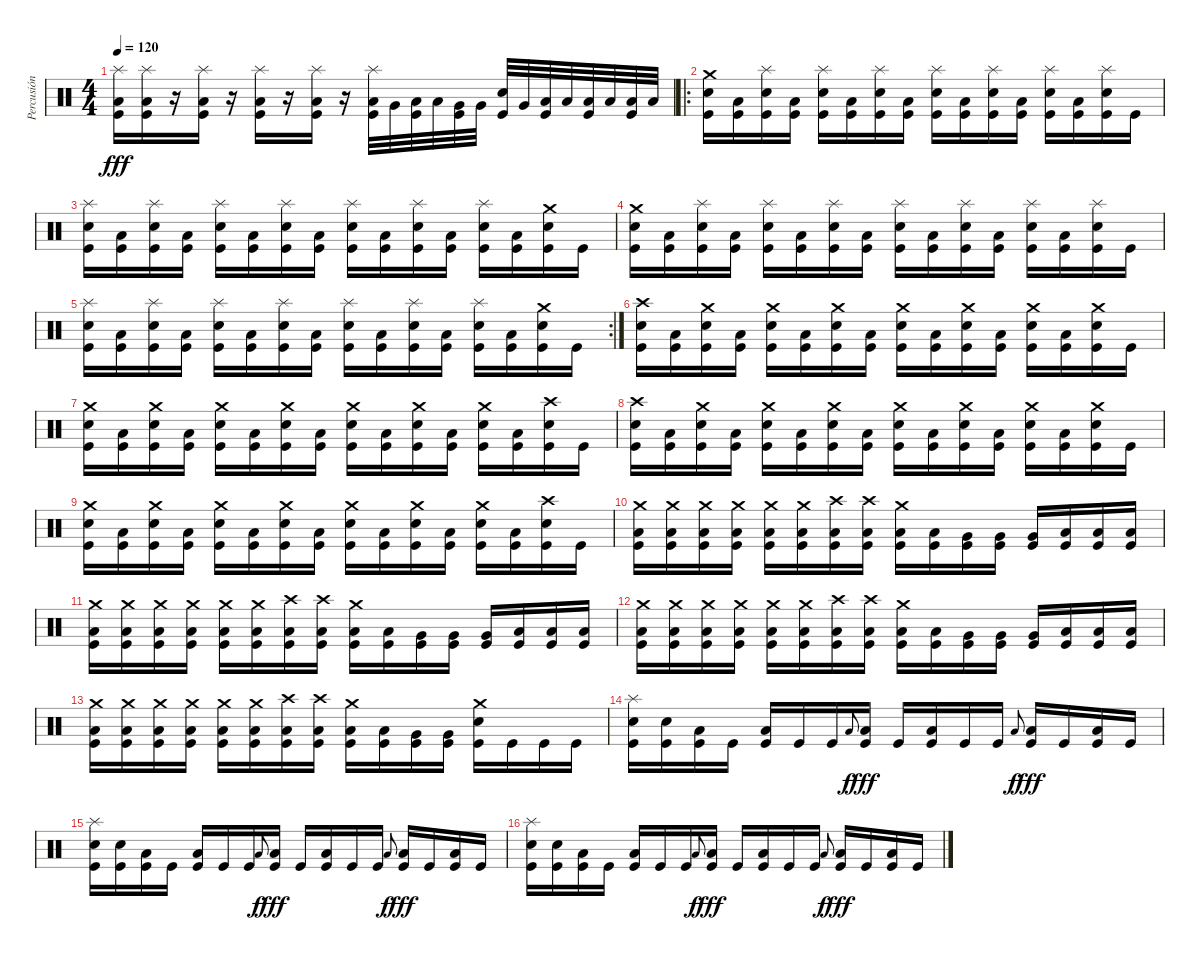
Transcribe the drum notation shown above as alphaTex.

\track ("Percusión" "Percusión") {instrument percussion}
\staff {score}
\articulation defaults
\ts (4 4)
\tempo 120
\clef neutral
\ks c
("Splash (hit)" "Low Floor Tom (hit)" "Kick (hit)").16{dy fff} ("Splash (hit)" "Low Floor Tom (hit)" "Kick (hit)").16 r.16 ("Splash (hit)" "Low Floor Tom (hit)" "Kick (hit)").16 r.16 ("Splash (hit)" "Low Floor Tom (hit)" "Kick (hit)").16 r.16 ("Splash (hit)" "Low Floor Tom (hit)" "Kick (hit)").16 r.16 ("Splash (hit)" "Low Floor Tom (hit)" "Kick (hit)").32 "Very Low Tom (hit)".32 ("Low Floor Tom (hit)" "Kick (hit)").32 "Low Floor Tom (hit)".32 ("Very Low Tom (hit)" "Kick (hit)").32 "Very Low Tom (hit)".32 ("Snare (hit) 2" "Kick (hit)").32 "Very Low Tom (hit)".32 ("Low Floor Tom (hit)" "Kick (hit)").32 "Low Floor Tom (hit)".32 ("Low Floor Tom (hit)" "Kick (hit)").32 "Low Floor Tom (hit)".32 ("Low Floor Tom (hit)" "Kick (hit)").32 "Low Floor Tom (hit)".32 |
\ro
("Crash medium (hit)" "Snare (hit) 2" "Kick (hit)").16 ("Low Floor Tom (hit)" "Kick (hit)").16 ("Splash (hit)" "Snare (hit) 2" "Kick (hit)").16 ("Low Floor Tom (hit)" "Kick (hit)").16 ("Splash (hit)" "Snare (hit) 2" "Kick (hit)").16 ("Low Floor Tom (hit)" "Kick (hit)").16 ("Splash (hit)" "Snare (hit) 2" "Kick (hit)").16 ("Low Floor Tom (hit)" "Kick (hit)").16 ("Splash (hit)" "Snare (hit) 2" "Kick (hit)").16 ("Low Floor Tom (hit)" "Kick (hit)").16 ("Splash (hit)" "Snare (hit) 2" "Kick (hit)").16 ("Low Floor Tom (hit)" "Kick (hit)").16 ("Splash (hit)" "Snare (hit) 2" "Kick (hit)").16 ("Low Floor Tom (hit)" "Kick (hit)").16 ("Splash (hit)" "Snare (hit) 2" "Kick (hit)").16 "Kick (hit)".16 |
("Splash (hit)" "Snare (hit) 2" "Kick (hit)").16 ("Low Floor Tom (hit)" "Kick (hit)").16 ("Splash (hit)" "Snare (hit) 2" "Kick (hit)").16 ("Low Floor Tom (hit)" "Kick (hit)").16 ("Splash (hit)" "Snare (hit) 2" "Kick (hit)").16 ("Low Floor Tom (hit)" "Kick (hit)").16 ("Splash (hit)" "Snare (hit) 2" "Kick (hit)").16 ("Low Floor Tom (hit)" "Kick (hit)").16 ("Splash (hit)" "Snare (hit) 2" "Kick (hit)").16 ("Low Floor Tom (hit)" "Kick (hit)").16 ("Splash (hit)" "Snare (hit) 2" "Kick (hit)").16 ("Low Floor Tom (hit)" "Kick (hit)").16 ("Splash (hit)" "Snare (hit) 2" "Kick (hit)").16 ("Low Floor Tom (hit)" "Kick (hit)").16 ("Crash medium (hit)" "Snare (hit) 2" "Kick (hit)").16 "Kick (hit)".16 |
("Crash medium (hit)" "Snare (hit) 2" "Kick (hit)").16 ("Low Floor Tom (hit)" "Kick (hit)").16 ("Splash (hit)" "Snare (hit) 2" "Kick (hit)").16 ("Low Floor Tom (hit)" "Kick (hit)").16 ("Splash (hit)" "Snare (hit) 2" "Kick (hit)").16 ("Low Floor Tom (hit)" "Kick (hit)").16 ("Splash (hit)" "Snare (hit) 2" "Kick (hit)").16 ("Low Floor Tom (hit)" "Kick (hit)").16 ("Splash (hit)" "Snare (hit) 2" "Kick (hit)").16 ("Low Floor Tom (hit)" "Kick (hit)").16 ("Splash (hit)" "Snare (hit) 2" "Kick (hit)").16 ("Low Floor Tom (hit)" "Kick (hit)").16 ("Splash (hit)" "Snare (hit) 2" "Kick (hit)").16 ("Low Floor Tom (hit)" "Kick (hit)").16 ("Splash (hit)" "Snare (hit) 2" "Kick (hit)").16 "Kick (hit)".16 |
\rc 2
("Splash (hit)" "Snare (hit) 2" "Kick (hit)").16 ("Low Floor Tom (hit)" "Kick (hit)").16 ("Splash (hit)" "Snare (hit) 2" "Kick (hit)").16 ("Low Floor Tom (hit)" "Kick (hit)").16 ("Splash (hit)" "Snare (hit) 2" "Kick (hit)").16 ("Low Floor Tom (hit)" "Kick (hit)").16 ("Splash (hit)" "Snare (hit) 2" "Kick (hit)").16 ("Low Floor Tom (hit)" "Kick (hit)").16 ("Splash (hit)" "Snare (hit) 2" "Kick (hit)").16 ("Low Floor Tom (hit)" "Kick (hit)").16 ("Splash (hit)" "Snare (hit) 2" "Kick (hit)").16 ("Low Floor Tom (hit)" "Kick (hit)").16 ("Splash (hit)" "Snare (hit) 2" "Kick (hit)").16 ("Low Floor Tom (hit)" "Kick (hit)").16 ("Crash medium (hit)" "Snare (hit) 2" "Kick (hit)").16 "Kick (hit)".16 |
("Crash high (hit)" "Snare (hit) 2" "Kick (hit)").16 ("Low Floor Tom (hit)" "Kick (hit)").16 ("Crash medium (hit)" "Snare (hit) 2" "Kick (hit)").16 ("Low Floor Tom (hit)" "Kick (hit)").16 ("Crash medium (hit)" "Snare (hit) 2" "Kick (hit)").16 ("Low Floor Tom (hit)" "Kick (hit)").16 ("Crash medium (hit)" "Snare (hit) 2" "Kick (hit)").16 ("Low Floor Tom (hit)" "Kick (hit)").16 ("Crash medium (hit)" "Snare (hit) 2" "Kick (hit)").16 ("Low Floor Tom (hit)" "Kick (hit)").16 ("Crash medium (hit)" "Snare (hit) 2" "Kick (hit)").16 ("Low Floor Tom (hit)" "Kick (hit)").16 ("Crash medium (hit)" "Snare (hit) 2" "Kick (hit)").16 ("Low Floor Tom (hit)" "Kick (hit)").16 ("Crash medium (hit)" "Snare (hit) 2" "Kick (hit)").16 "Kick (hit)".16 |
("Crash medium (hit)" "Snare (hit) 2" "Kick (hit)").16 ("Low Floor Tom (hit)" "Kick (hit)").16 ("Crash medium (hit)" "Snare (hit) 2" "Kick (hit)").16 ("Low Floor Tom (hit)" "Kick (hit)").16 ("Crash medium (hit)" "Snare (hit) 2" "Kick (hit)").16 ("Low Floor Tom (hit)" "Kick (hit)").16 ("Crash medium (hit)" "Snare (hit) 2" "Kick (hit)").16 ("Low Floor Tom (hit)" "Kick (hit)").16 ("Crash medium (hit)" "Snare (hit) 2" "Kick (hit)").16 ("Low Floor Tom (hit)" "Kick (hit)").16 ("Crash medium (hit)" "Snare (hit) 2" "Kick (hit)").16 ("Low Floor Tom (hit)" "Kick (hit)").16 ("Crash medium (hit)" "Snare (hit) 2" "Kick (hit)").16 ("Low Floor Tom (hit)" "Kick (hit)").16 ("Crash high (hit)" "Snare (hit) 2" "Kick (hit)").16 "Kick (hit)".16 |
("Crash high (hit)" "Snare (hit) 2" "Kick (hit)").16 ("Low Floor Tom (hit)" "Kick (hit)").16 ("Crash medium (hit)" "Snare (hit) 2" "Kick (hit)").16 ("Low Floor Tom (hit)" "Kick (hit)").16 ("Crash medium (hit)" "Snare (hit) 2" "Kick (hit)").16 ("Low Floor Tom (hit)" "Kick (hit)").16 ("Crash medium (hit)" "Snare (hit) 2" "Kick (hit)").16 ("Low Floor Tom (hit)" "Kick (hit)").16 ("Crash medium (hit)" "Snare (hit) 2" "Kick (hit)").16 ("Low Floor Tom (hit)" "Kick (hit)").16 ("Crash medium (hit)" "Snare (hit) 2" "Kick (hit)").16 ("Low Floor Tom (hit)" "Kick (hit)").16 ("Crash medium (hit)" "Snare (hit) 2" "Kick (hit)").16 ("Low Floor Tom (hit)" "Kick (hit)").16 ("Crash medium (hit)" "Snare (hit) 2" "Kick (hit)").16 "Kick (hit)".16 |
("Crash medium (hit)" "Snare (hit) 2" "Kick (hit)").16 ("Low Floor Tom (hit)" "Kick (hit)").16 ("Crash medium (hit)" "Snare (hit) 2" "Kick (hit)").16 ("Low Floor Tom (hit)" "Kick (hit)").16 ("Crash medium (hit)" "Snare (hit) 2" "Kick (hit)").16 ("Low Floor Tom (hit)" "Kick (hit)").16 ("Crash medium (hit)" "Snare (hit) 2" "Kick (hit)").16 ("Low Floor Tom (hit)" "Kick (hit)").16 ("Crash medium (hit)" "Snare (hit) 2" "Kick (hit)").16 ("Low Floor Tom (hit)" "Kick (hit)").16 ("Crash medium (hit)" "Snare (hit) 2" "Kick (hit)").16 ("Low Floor Tom (hit)" "Kick (hit)").16 ("Crash medium (hit)" "Snare (hit) 2" "Kick (hit)").16 ("Low Floor Tom (hit)" "Kick (hit)").16 ("Crash high (hit)" "Snare (hit) 2" "Kick (hit)").16 "Kick (hit)".16 |
("Crash medium (hit)" "Low Floor Tom (hit)" "Kick (hit)").16 ("Crash medium (hit)" "Low Floor Tom (hit)" "Kick (hit)").16 ("Crash medium (hit)" "Low Floor Tom (hit)" "Kick (hit)").16 ("Crash medium (hit)" "Low Floor Tom (hit)" "Kick (hit)").16 ("Crash medium (hit)" "Low Floor Tom (hit)" "Kick (hit)").16 ("Crash medium (hit)" "Low Floor Tom (hit)" "Kick (hit)").16 ("Crash high (hit)" "Low Floor Tom (hit)" "Kick (hit)").16 ("Crash high (hit)" "Low Floor Tom (hit)" "Kick (hit)").16 ("Crash medium (hit)" "Low Floor Tom (hit)" "Kick (hit)").16 ("Low Floor Tom (hit)" "Kick (hit)").16 ("Very Low Tom (hit)" "Kick (hit)").16 ("Very Low Tom (hit)" "Kick (hit)").16 ("Very Low Tom (hit)" "Kick (hit)").16 ("Low Floor Tom (hit)" "Kick (hit)").16 ("Low Floor Tom (hit)" "Kick (hit)").16 ("Low Floor Tom (hit)" "Kick (hit)").16 |
("Crash medium (hit)" "Low Floor Tom (hit)" "Kick (hit)").16 ("Crash medium (hit)" "Low Floor Tom (hit)" "Kick (hit)").16 ("Crash medium (hit)" "Low Floor Tom (hit)" "Kick (hit)").16 ("Crash medium (hit)" "Low Floor Tom (hit)" "Kick (hit)").16 ("Crash medium (hit)" "Low Floor Tom (hit)" "Kick (hit)").16 ("Crash medium (hit)" "Low Floor Tom (hit)" "Kick (hit)").16 ("Crash high (hit)" "Low Floor Tom (hit)" "Kick (hit)").16 ("Crash high (hit)" "Low Floor Tom (hit)" "Kick (hit)").16 ("Crash medium (hit)" "Low Floor Tom (hit)" "Kick (hit)").16 ("Low Floor Tom (hit)" "Kick (hit)").16 ("Very Low Tom (hit)" "Kick (hit)").16 ("Very Low Tom (hit)" "Kick (hit)").16 ("Very Low Tom (hit)" "Kick (hit)").16 ("Low Floor Tom (hit)" "Kick (hit)").16 ("Low Floor Tom (hit)" "Kick (hit)").16 ("Low Floor Tom (hit)" "Kick (hit)").16 |
("Crash medium (hit)" "Low Floor Tom (hit)" "Kick (hit)").16 ("Crash medium (hit)" "Low Floor Tom (hit)" "Kick (hit)").16 ("Crash medium (hit)" "Low Floor Tom (hit)" "Kick (hit)").16 ("Crash medium (hit)" "Low Floor Tom (hit)" "Kick (hit)").16 ("Crash medium (hit)" "Low Floor Tom (hit)" "Kick (hit)").16 ("Crash medium (hit)" "Low Floor Tom (hit)" "Kick (hit)").16 ("Crash high (hit)" "Low Floor Tom (hit)" "Kick (hit)").16 ("Crash high (hit)" "Low Floor Tom (hit)" "Kick (hit)").16 ("Crash medium (hit)" "Low Floor Tom (hit)" "Kick (hit)").16 ("Low Floor Tom (hit)" "Kick (hit)").16 ("Very Low Tom (hit)" "Kick (hit)").16 ("Very Low Tom (hit)" "Kick (hit)").16 ("Very Low Tom (hit)" "Kick (hit)").16 ("Low Floor Tom (hit)" "Kick (hit)").16 ("Low Floor Tom (hit)" "Kick (hit)").16 ("Low Floor Tom (hit)" "Kick (hit)").16 |
("Crash medium (hit)" "Low Floor Tom (hit)" "Kick (hit)").16 ("Crash medium (hit)" "Low Floor Tom (hit)" "Kick (hit)").16 ("Crash medium (hit)" "Low Floor Tom (hit)" "Kick (hit)").16 ("Crash medium (hit)" "Low Floor Tom (hit)" "Kick (hit)").16 ("Crash medium (hit)" "Low Floor Tom (hit)" "Kick (hit)").16 ("Crash medium (hit)" "Low Floor Tom (hit)" "Kick (hit)").16 ("Crash high (hit)" "Low Floor Tom (hit)" "Kick (hit)").16 ("Crash high (hit)" "Low Floor Tom (hit)" "Kick (hit)").16 ("Crash medium (hit)" "Low Floor Tom (hit)" "Kick (hit)").16 ("Low Floor Tom (hit)" "Kick (hit)").16 ("Very Low Tom (hit)" "Kick (hit)").16 ("Very Low Tom (hit)" "Kick (hit)").16 ("Crash medium (hit)" "Snare (hit) 2" "Kick (hit)").16 "Kick (hit)".16 "Kick (hit)".16 "Kick (hit)".16 |
("Splash (hit)" "Snare (hit) 2" "Kick (hit)").16 ("Snare (hit) 2" "Kick (hit)").16 ("Low Floor Tom (hit)" "Kick (hit)").16 "Kick (hit)".16 ("Low Floor Tom (hit)" "Kick (hit)").16 "Kick (hit)".16 "Kick (hit)".16 "Low Floor Tom (hit)".8{gr onbeat dy f} ("Low Floor Tom (hit)" "Kick (hit)").16{dy fff} "Kick (hit)".16 ("Low Floor Tom (hit)" "Kick (hit)").16 "Kick (hit)".16 "Kick (hit)".16 "Low Floor Tom (hit)".8{gr onbeat dy f} ("Low Floor Tom (hit)" "Kick (hit)").16{dy fff} "Kick (hit)".16 ("Low Floor Tom (hit)" "Kick (hit)").16 "Kick (hit)".16 |
("Splash (hit)" "Snare (hit) 2" "Kick (hit)").16 ("Snare (hit) 2" "Kick (hit)").16 ("Low Floor Tom (hit)" "Kick (hit)").16 "Kick (hit)".16 ("Low Floor Tom (hit)" "Kick (hit)").16 "Kick (hit)".16 "Kick (hit)".16 "Low Floor Tom (hit)".8{gr onbeat dy f} ("Low Floor Tom (hit)" "Kick (hit)").16{dy fff} "Kick (hit)".16 ("Low Floor Tom (hit)" "Kick (hit)").16 "Kick (hit)".16 "Kick (hit)".16 "Low Floor Tom (hit)".8{gr onbeat dy f} ("Low Floor Tom (hit)" "Kick (hit)").16{dy fff} "Kick (hit)".16 ("Low Floor Tom (hit)" "Kick (hit)").16 "Kick (hit)".16 |
("Splash (hit)" "Snare (hit) 2" "Kick (hit)").16 ("Snare (hit) 2" "Kick (hit)").16 ("Low Floor Tom (hit)" "Kick (hit)").16 "Kick (hit)".16 ("Low Floor Tom (hit)" "Kick (hit)").16 "Kick (hit)".16 "Kick (hit)".16 "Low Floor Tom (hit)".8{gr onbeat dy f} ("Low Floor Tom (hit)" "Kick (hit)").16{dy fff} "Kick (hit)".16 ("Low Floor Tom (hit)" "Kick (hit)").16 "Kick (hit)".16 "Kick (hit)".16 "Low Floor Tom (hit)".8{gr onbeat dy f} ("Low Floor Tom (hit)" "Kick (hit)").16{dy fff} "Kick (hit)".16 ("Low Floor Tom (hit)" "Kick (hit)").16 "Kick (hit)".16
